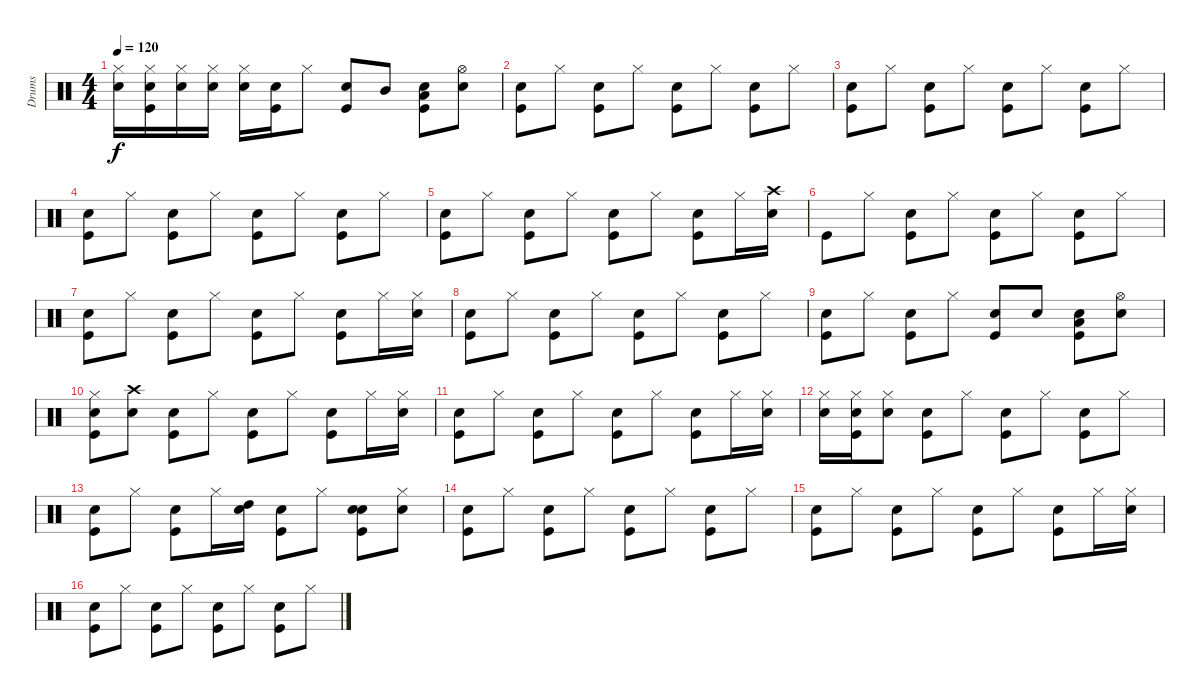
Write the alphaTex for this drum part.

\track ("Drums" "Drums") {instrument percussion}
\staff {score}
\articulation defaults
\ts (4 4)
\tempo 120
\clef neutral
\ks c
("Snare (hit)" "Hi-Hat (closed)").16{dy f} ("Snare (hit)" "Kick (hit)" "Hi-Hat (closed)").16 ("Snare (hit)" "Hi-Hat (closed)").16 ("Snare (hit)" "Hi-Hat (closed)").16 ("Snare (hit)" "Hi-Hat (closed)").16 ("Snare (hit)" "Kick (hit)").16 "Hi-Hat (closed)".8 ("Snare (hit)" "Kick (hit)").8 "Mid Tom (hit)".8 ("Snare (hit)" "Kick (hit)" "Low Tom (hit)").8 ("Snare (hit)" "Hi-Hat (open)").8 |
("Snare (hit)" "Kick (hit)").8 "Hi-Hat (closed)".8 ("Snare (hit)" "Kick (hit)").8 "Hi-Hat (closed)".8 ("Snare (hit)" "Kick (hit)").8 "Hi-Hat (closed)".8 ("Snare (hit)" "Kick (hit)").8 "Hi-Hat (closed)".8 |
("Snare (hit)" "Kick (hit)").8 "Hi-Hat (closed)".8 ("Snare (hit)" "Kick (hit)").8 "Hi-Hat (closed)".8 ("Snare (hit)" "Kick (hit)").8 "Hi-Hat (closed)".8 ("Snare (hit)" "Kick (hit)").8 "Hi-Hat (closed)".8 |
("Snare (hit)" "Kick (hit)").8 "Hi-Hat (closed)".8 ("Snare (hit)" "Kick (hit)").8 "Hi-Hat (closed)".8 ("Snare (hit)" "Kick (hit)").8 "Hi-Hat (closed)".8 ("Snare (hit)" "Kick (hit)").8 "Hi-Hat (closed)".8 |
("Snare (hit)" "Kick (hit)").8 "Hi-Hat (closed)".8 ("Snare (hit)" "Kick (hit)").8 "Hi-Hat (closed)".8 ("Snare (hit)" "Kick (hit)").8 "Hi-Hat (closed)".8 ("Snare (hit)" "Kick (hit)").8 "Hi-Hat (closed)".16 ("Snare (hit)" "Crash high (hit)").16 |
"Kick (hit)".8 "Hi-Hat (closed)".8 ("Snare (hit)" "Kick (hit)").8 "Hi-Hat (closed)".8 ("Snare (hit)" "Kick (hit)").8 "Hi-Hat (closed)".8 ("Snare (hit)" "Kick (hit)").8 "Hi-Hat (closed)".8 |
("Snare (hit)" "Kick (hit)").8 "Hi-Hat (closed)".8 ("Snare (hit)" "Kick (hit)").8 "Hi-Hat (closed)".8 ("Snare (hit)" "Kick (hit)").8 "Hi-Hat (closed)".8 ("Snare (hit)" "Kick (hit)").8 "Hi-Hat (closed)".16 ("Snare (hit)" "Hi-Hat (closed)").16 |
("Snare (hit)" "Kick (hit)").8 "Hi-Hat (closed)".8 ("Snare (hit)" "Kick (hit)").8 "Hi-Hat (closed)".8 ("Snare (hit)" "Kick (hit)").8 "Hi-Hat (closed)".8 ("Snare (hit)" "Kick (hit)").8 "Hi-Hat (closed)".8 |
("Snare (hit)" "Kick (hit)").8 "Hi-Hat (closed)".8 ("Snare (hit)" "Kick (hit)").8 "Hi-Hat (closed)".8 ("Snare (hit)" "Kick (hit)").8 "Electric Snare (hit)".8 ("Snare (hit)" "Low Tom (hit)" "Kick (hit)").8 ("Snare (hit)" "Hi-Hat (open)").8 |
("Snare (hit)" "Hi-Hat (closed)" "Kick (hit)").8 ("Snare (hit)" "Crash high (hit)").8 ("Snare (hit)" "Kick (hit)").8 "Hi-Hat (closed)".8 ("Snare (hit)" "Kick (hit)").8 "Hi-Hat (closed)".8 ("Snare (hit)" "Kick (hit)").8 "Hi-Hat (closed)".16 ("Snare (hit)" "Hi-Hat (closed)").16 |
("Snare (hit)" "Kick (hit)").8 "Hi-Hat (closed)".8 ("Snare (hit)" "Kick (hit)").8 "Hi-Hat (closed)".8 ("Snare (hit)" "Kick (hit)").8 "Hi-Hat (closed)".8 ("Snare (hit)" "Kick (hit)").8 "Hi-Hat (closed)".16 ("Snare (hit)" "Hi-Hat (closed)").16 |
("Snare (hit)" "Hi-Hat (closed)").16 ("Snare (hit)" "Hi-Hat (closed)" "Kick (hit)").16 ("Snare (hit)" "Hi-Hat (closed)").8 ("Snare (hit)" "Kick (hit)").8 "Hi-Hat (closed)".8 ("Snare (hit)" "Kick (hit)").8 "Hi-Hat (closed)".8 ("Snare (hit)" "Kick (hit)").8 "Hi-Hat (closed)".8 |
("Snare (hit)" "Kick (hit)").8 "Hi-Hat (closed)".8 ("Snare (hit)" "Kick (hit)").8 "Hi-Hat (closed)".16 ("Snare (hit)" "High Tom (hit)").16 ("Snare (hit)" "Kick (hit)").8 "Hi-Hat (closed)".8 ("Snare (hit)" "Electric Snare (hit)" "Kick (hit)").8 ("Snare (hit)" "Hi-Hat (closed)").8 |
("Snare (hit)" "Kick (hit)").8 "Hi-Hat (closed)".8 ("Snare (hit)" "Kick (hit)").8 "Hi-Hat (closed)".8 ("Snare (hit)" "Kick (hit)").8 "Hi-Hat (closed)".8 ("Snare (hit)" "Kick (hit)").8 "Hi-Hat (closed)".8 |
("Snare (hit)" "Kick (hit)").8 "Hi-Hat (closed)".8 ("Snare (hit)" "Kick (hit)").8 "Hi-Hat (closed)".8 ("Snare (hit)" "Kick (hit)").8 "Hi-Hat (closed)".8 ("Snare (hit)" "Kick (hit)").8 "Hi-Hat (closed)".16 ("Snare (hit)" "Hi-Hat (closed)").16 |
("Snare (hit)" "Kick (hit)").8 "Hi-Hat (closed)".8 ("Snare (hit)" "Kick (hit)").8 "Hi-Hat (closed)".8 ("Snare (hit)" "Kick (hit)").8 "Hi-Hat (closed)".8 ("Snare (hit)" "Kick (hit)").8 "Hi-Hat (closed)".8
